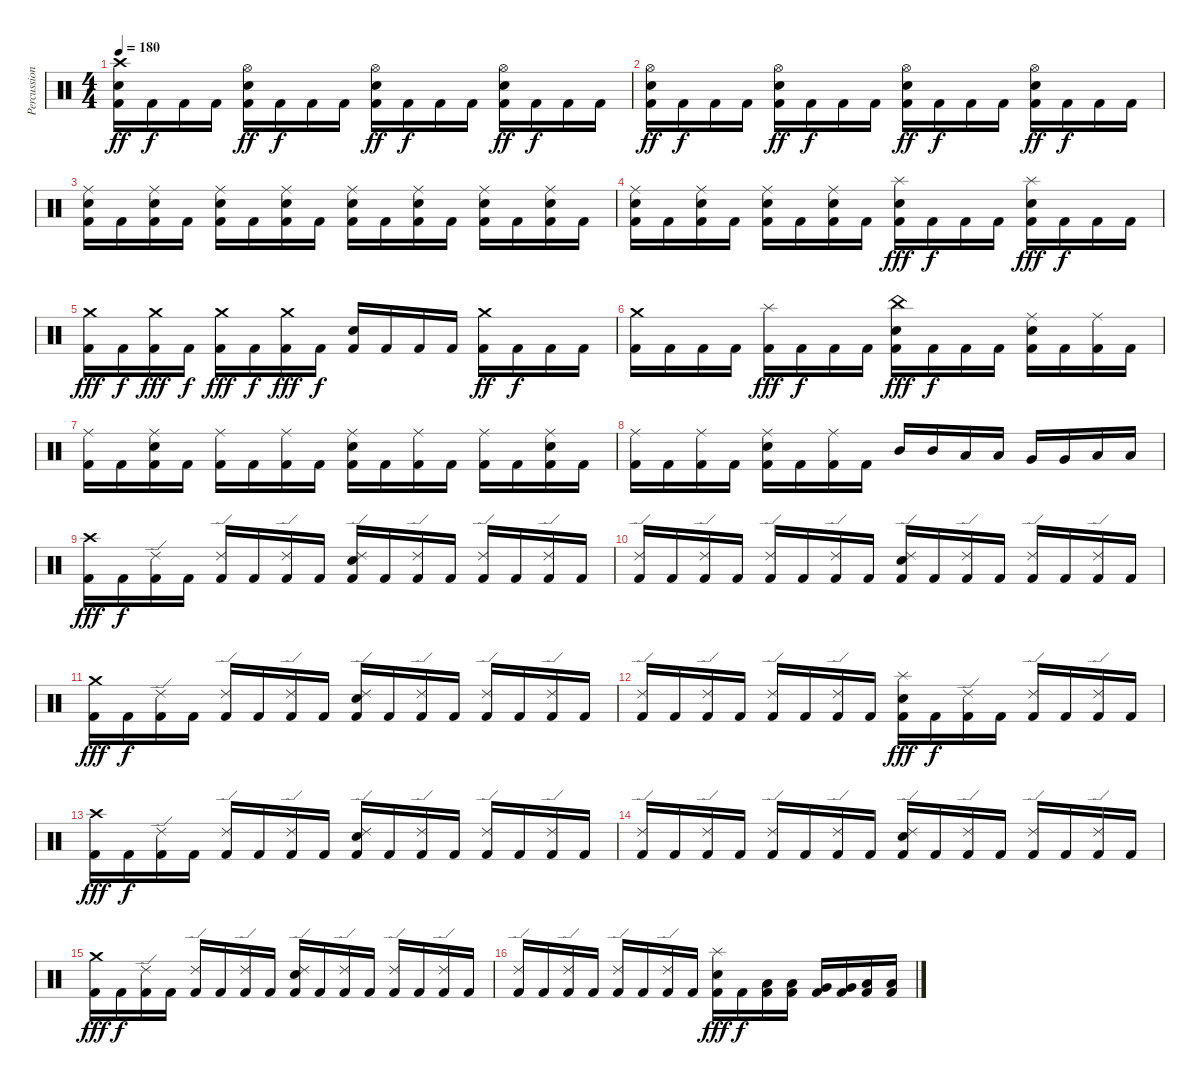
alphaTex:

\track ("Percussion" "Percussion") {instrument percussion}
\staff {score}
\articulation defaults
\ts (4 4)
\tempo 180
\clef neutral
\ks c
("Crash high (hit)" "Electric Snare (hit)" "Kick (hit) 2").16{dy ff} "Kick (hit) 2".16{dy f} "Kick (hit) 2".16 "Kick (hit) 2".16 ("Hi-Hat (open)" "Electric Snare (hit)" "Kick (hit) 2").16{dy ff} "Kick (hit) 2".16{dy f} "Kick (hit) 2".16 "Kick (hit) 2".16 ("Hi-Hat (open)" "Electric Snare (hit)" "Kick (hit) 2").16{dy ff} "Kick (hit) 2".16{dy f} "Kick (hit) 2".16 "Kick (hit) 2".16 ("Hi-Hat (open)" "Electric Snare (hit)" "Kick (hit) 2").16{dy ff} "Kick (hit) 2".16{dy f} "Kick (hit) 2".16 "Kick (hit) 2".16 |
("Hi-Hat (open)" "Electric Snare (hit)" "Kick (hit) 2").16{dy ff} "Kick (hit) 2".16{dy f} "Kick (hit) 2".16 "Kick (hit) 2".16 ("Hi-Hat (open)" "Electric Snare (hit)" "Kick (hit) 2").16{dy ff} "Kick (hit) 2".16{dy f} "Kick (hit) 2".16 "Kick (hit) 2".16 ("Hi-Hat (open)" "Electric Snare (hit)" "Kick (hit) 2").16{dy ff} "Kick (hit) 2".16{dy f} "Kick (hit) 2".16 "Kick (hit) 2".16 ("Hi-Hat (open)" "Electric Snare (hit)" "Kick (hit) 2").16{dy ff} "Kick (hit) 2".16{dy f} "Kick (hit) 2".16 "Kick (hit) 2".16 |
("Ride (middle)" "Electric Snare (hit)" "Kick (hit) 2").16 "Kick (hit) 2".16 ("Ride (middle)" "Electric Snare (hit)" "Kick (hit) 2").16 "Kick (hit) 2".16 ("Ride (middle)" "Electric Snare (hit)" "Kick (hit) 2").16 "Kick (hit) 2".16 ("Ride (middle)" "Electric Snare (hit)" "Kick (hit) 2").16 "Kick (hit) 2".16 ("Ride (middle)" "Electric Snare (hit)" "Kick (hit) 2").16 "Kick (hit) 2".16 ("Ride (middle)" "Electric Snare (hit)" "Kick (hit) 2").16 "Kick (hit) 2".16 ("Ride (middle)" "Electric Snare (hit)" "Kick (hit) 2").16 "Kick (hit) 2".16 ("Ride (middle)" "Electric Snare (hit)" "Kick (hit) 2").16 "Kick (hit) 2".16 |
("Ride (middle)" "Electric Snare (hit)" "Kick (hit) 2").16 "Kick (hit) 2".16 ("Ride (middle)" "Electric Snare (hit)" "Kick (hit) 2").16 "Kick (hit) 2".16 ("Ride (middle)" "Electric Snare (hit)" "Kick (hit) 2").16 "Kick (hit) 2".16 ("Ride (middle)" "Electric Snare (hit)" "Kick (hit) 2").16 "Kick (hit) 2".16 ("Splash (hit)" "Electric Snare (hit)" "Kick (hit) 2").16{dy fff} "Kick (hit) 2".16{dy f} "Kick (hit) 2".16 "Kick (hit) 2".16 ("Splash (hit)" "Electric Snare (hit)" "Kick (hit) 2").16{dy fff} "Kick (hit) 2".16{dy f} "Kick (hit) 2".16 "Kick (hit) 2".16 |
("Crash medium (hit)" "Kick (hit) 2").16{dy fff} "Kick (hit) 2".16{dy f} ("Crash medium (hit)" "Kick (hit) 2").16{dy fff} "Kick (hit) 2".16{dy f} ("Crash medium (hit)" "Kick (hit) 2").16{dy fff} "Kick (hit) 2".16{dy f} ("Crash medium (hit)" "Kick (hit) 2").16{dy fff} "Kick (hit) 2".16{dy f} ("Electric Snare (hit)" "Kick (hit) 2").16 "Kick (hit) 2".16 "Kick (hit) 2".16 "Kick (hit) 2".16 ("Crash medium (hit)" "Kick (hit) 2").16{dy ff} "Kick (hit) 2".16{dy f} "Kick (hit) 2".16 "Kick (hit) 2".16 |
("Crash medium (hit)" "Kick (hit) 2").16 "Kick (hit) 2".16 "Kick (hit) 2".16 "Kick (hit) 2".16 ("Splash (hit)" "Kick (hit) 2").16{dy fff} "Kick (hit) 2".16{dy f} "Kick (hit) 2".16 "Kick (hit) 2".16 ("China (hit)" "Electric Snare (hit)" "Kick (hit) 2").16{dy fff} "Kick (hit) 2".16{dy f} "Kick (hit) 2".16 "Kick (hit) 2".16 ("Ride (middle)" "Electric Snare (hit)" "Kick (hit) 2").16 "Kick (hit) 2".16 ("Ride (middle)" "Kick (hit) 2").16 "Kick (hit) 2".16 |
("Ride (middle)" "Kick (hit) 2").16 "Kick (hit) 2".16 ("Ride (middle)" "Electric Snare (hit)" "Kick (hit) 2").16 "Kick (hit) 2".16 ("Ride (middle)" "Kick (hit) 2").16 "Kick (hit) 2".16 ("Ride (middle)" "Kick (hit) 2").16 "Kick (hit) 2".16 ("Ride (middle)" "Electric Snare (hit)" "Kick (hit) 2").16 "Kick (hit) 2".16 ("Ride (middle)" "Kick (hit) 2").16 "Kick (hit) 2".16 ("Ride (middle)" "Kick (hit) 2").16 "Kick (hit) 2".16 ("Ride (middle)" "Electric Snare (hit)" "Kick (hit) 2").16 "Kick (hit) 2".16 |
("Ride (middle)" "Kick (hit) 2").16 "Kick (hit) 2".16 ("Ride (middle)" "Kick (hit) 2").16 "Kick (hit) 2".16 ("Ride (middle)" "Electric Snare (hit)" "Kick (hit) 2").16 "Kick (hit) 2".16 ("Ride (middle)" "Kick (hit) 2").16 "Kick (hit) 2".16 "Mid Tom (hit)".16 "Mid Tom (hit)".16 "Low Tom (hit)".16 "Low Tom (hit)".16 "Very Low Tom (hit)".16 "Very Low Tom (hit)".16 "Low Floor Tom (hit)".16 "Low Floor Tom (hit)".16 |
("Crash high (hit)" "Kick (hit) 2").16{dy fff} "Kick (hit) 2".16{dy f} ("Ride (edge) 2" "Kick (hit) 2").16 "Kick (hit) 2".16 ("Ride (edge) 2" "Kick (hit) 2").16 "Kick (hit) 2".16 ("Ride (edge) 2" "Kick (hit) 2").16 "Kick (hit) 2".16 ("Ride (edge) 2" "Electric Snare (hit)" "Kick (hit) 2").16 "Kick (hit) 2".16 ("Ride (edge) 2" "Kick (hit) 2").16 "Kick (hit) 2".16 ("Ride (edge) 2" "Kick (hit) 2").16 "Kick (hit) 2".16 ("Ride (edge) 2" "Kick (hit) 2").16 "Kick (hit) 2".16 |
("Ride (edge) 2" "Kick (hit) 2").16 "Kick (hit) 2".16 ("Ride (edge) 2" "Kick (hit) 2").16 "Kick (hit) 2".16 ("Ride (edge) 2" "Kick (hit) 2").16 "Kick (hit) 2".16 ("Ride (edge) 2" "Kick (hit) 2").16 "Kick (hit) 2".16 ("Ride (edge) 2" "Electric Snare (hit)" "Kick (hit) 2").16 "Kick (hit) 2".16 ("Ride (edge) 2" "Kick (hit) 2").16 "Kick (hit) 2".16 ("Ride (edge) 2" "Kick (hit) 2").16 "Kick (hit) 2".16 ("Ride (edge) 2" "Kick (hit) 2").16 "Kick (hit) 2".16 |
("Crash medium (hit)" "Kick (hit) 2").16{dy fff} "Kick (hit) 2".16{dy f} ("Ride (edge) 2" "Kick (hit) 2").16 "Kick (hit) 2".16 ("Ride (edge) 2" "Kick (hit) 2").16 "Kick (hit) 2".16 ("Ride (edge) 2" "Kick (hit) 2").16 "Kick (hit) 2".16 ("Ride (edge) 2" "Electric Snare (hit)" "Kick (hit) 2").16 "Kick (hit) 2".16 ("Ride (edge) 2" "Kick (hit) 2").16 "Kick (hit) 2".16 ("Ride (edge) 2" "Kick (hit) 2").16 "Kick (hit) 2".16 ("Ride (edge) 2" "Kick (hit) 2").16 "Kick (hit) 2".16 |
("Ride (edge) 2" "Kick (hit) 2").16 "Kick (hit) 2".16 ("Ride (edge) 2" "Kick (hit) 2").16 "Kick (hit) 2".16 ("Ride (edge) 2" "Kick (hit) 2").16 "Kick (hit) 2".16 ("Ride (edge) 2" "Kick (hit) 2").16 "Kick (hit) 2".16 ("Splash (hit)" "Electric Snare (hit)" "Kick (hit) 2").16{dy fff} "Kick (hit) 2".16{dy f} ("Ride (edge) 2" "Kick (hit) 2").16 "Kick (hit) 2".16 ("Ride (edge) 2" "Kick (hit) 2").16 "Kick (hit) 2".16 ("Ride (edge) 2" "Kick (hit) 2").16 "Kick (hit) 2".16 |
("Crash high (hit)" "Kick (hit) 2").16{dy fff} "Kick (hit) 2".16{dy f} ("Ride (edge) 2" "Kick (hit) 2").16 "Kick (hit) 2".16 ("Ride (edge) 2" "Kick (hit) 2").16 "Kick (hit) 2".16 ("Ride (edge) 2" "Kick (hit) 2").16 "Kick (hit) 2".16 ("Ride (edge) 2" "Electric Snare (hit)" "Kick (hit) 2").16 "Kick (hit) 2".16 ("Ride (edge) 2" "Kick (hit) 2").16 "Kick (hit) 2".16 ("Ride (edge) 2" "Kick (hit) 2").16 "Kick (hit) 2".16 ("Ride (edge) 2" "Kick (hit) 2").16 "Kick (hit) 2".16 |
("Ride (edge) 2" "Kick (hit) 2").16 "Kick (hit) 2".16 ("Ride (edge) 2" "Kick (hit) 2").16 "Kick (hit) 2".16 ("Ride (edge) 2" "Kick (hit) 2").16 "Kick (hit) 2".16 ("Ride (edge) 2" "Kick (hit) 2").16 "Kick (hit) 2".16 ("Ride (edge) 2" "Electric Snare (hit)" "Kick (hit) 2").16 "Kick (hit) 2".16 ("Ride (edge) 2" "Kick (hit) 2").16 "Kick (hit) 2".16 ("Ride (edge) 2" "Kick (hit) 2").16 "Kick (hit) 2".16 ("Ride (edge) 2" "Kick (hit) 2").16 "Kick (hit) 2".16 |
("Crash medium (hit)" "Kick (hit) 2").16{dy fff} "Kick (hit) 2".16{dy f} ("Ride (edge) 2" "Kick (hit) 2").16 "Kick (hit) 2".16 ("Ride (edge) 2" "Kick (hit) 2").16 "Kick (hit) 2".16 ("Ride (edge) 2" "Kick (hit) 2").16 "Kick (hit) 2".16 ("Ride (edge) 2" "Electric Snare (hit)" "Kick (hit) 2").16 "Kick (hit) 2".16 ("Ride (edge) 2" "Kick (hit) 2").16 "Kick (hit) 2".16 ("Ride (edge) 2" "Kick (hit) 2").16 "Kick (hit) 2".16 ("Ride (edge) 2" "Kick (hit) 2").16 "Kick (hit) 2".16 |
("Ride (edge) 2" "Kick (hit) 2").16 "Kick (hit) 2".16 ("Ride (edge) 2" "Kick (hit) 2").16 "Kick (hit) 2".16 ("Ride (edge) 2" "Kick (hit) 2").16 "Kick (hit) 2".16 ("Ride (edge) 2" "Kick (hit) 2").16 "Kick (hit) 2".16 ("Splash (hit)" "Electric Snare (hit)" "Kick (hit) 2").16{dy fff} "Kick (hit) 2".16{dy f} ("Low Tom (hit)" "Kick (hit) 2").16 ("Low Tom (hit)" "Kick (hit) 2").16 ("Very Low Tom (hit)" "Kick (hit) 2").16 ("Very Low Tom (hit)" "Kick (hit) 2").16 ("Low Floor Tom (hit)" "Kick (hit) 2").16 ("Low Floor Tom (hit)" "Kick (hit) 2").16
